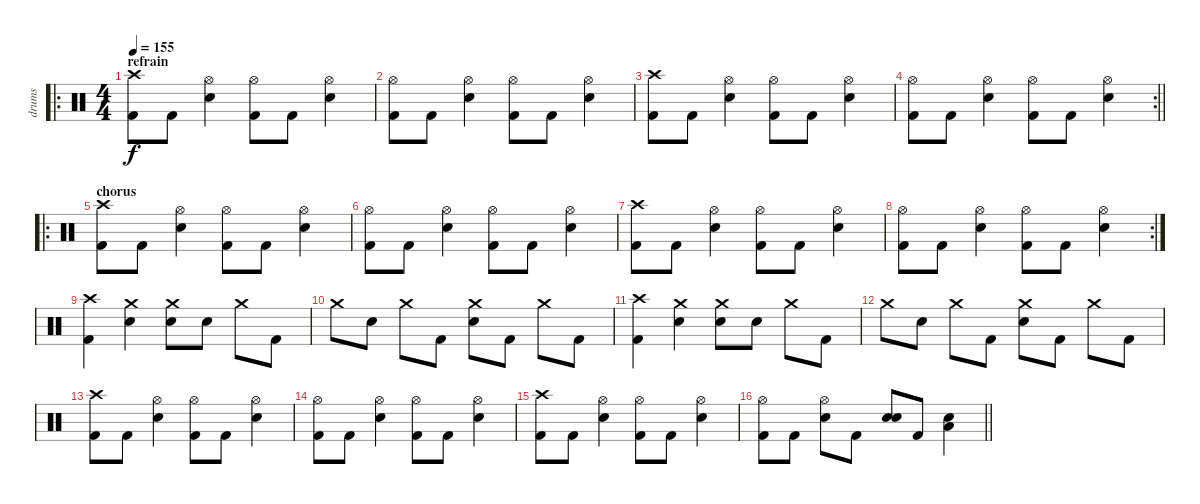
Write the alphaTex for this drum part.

\track ("drums" "drums") {instrument percussion}
\staff
\articulation defaults
\ro
\ts (4 4)
\section ("" "refrain")
\tempo 155
\clef neutral
\ks c
("Crash high (hit)" "Kick (hit) 2").8{dy f} "Kick (hit) 2".8 ("Hi-Hat (open)" "Electric Snare (hit)").4 ("Hi-Hat (open)" "Kick (hit) 2").8 "Kick (hit) 2".8 ("Hi-Hat (open)" "Electric Snare (hit)").4 |
("Hi-Hat (open)" "Kick (hit) 2").8 "Kick (hit) 2".8 ("Hi-Hat (open)" "Electric Snare (hit)").4 ("Hi-Hat (open)" "Kick (hit) 2").8 "Kick (hit) 2".8 ("Hi-Hat (open)" "Electric Snare (hit)").4 |
("Crash high (hit)" "Kick (hit) 2").8 "Kick (hit) 2".8 ("Hi-Hat (open)" "Electric Snare (hit)").4 ("Hi-Hat (open)" "Kick (hit) 2").8 "Kick (hit) 2".8 ("Hi-Hat (open)" "Electric Snare (hit)").4 |
\rc 2
\barLineRight lightlight
("Hi-Hat (open)" "Kick (hit) 2").8 "Kick (hit) 2".8 ("Hi-Hat (open)" "Electric Snare (hit)").4 ("Hi-Hat (open)" "Kick (hit) 2").8 "Kick (hit) 2".8 ("Hi-Hat (open)" "Electric Snare (hit)").4 |
\ro
\section ("" "chorus")
("Crash high (hit)" "Kick (hit) 2").8 "Kick (hit) 2".8 ("Hi-Hat (open)" "Electric Snare (hit)").4 ("Hi-Hat (open)" "Kick (hit) 2").8 "Kick (hit) 2".8 ("Hi-Hat (open)" "Electric Snare (hit)").4 |
("Hi-Hat (open)" "Kick (hit) 2").8 "Kick (hit) 2".8 ("Hi-Hat (open)" "Electric Snare (hit)").4 ("Hi-Hat (open)" "Kick (hit) 2").8 "Kick (hit) 2".8 ("Hi-Hat (open)" "Electric Snare (hit)").4 |
("Crash high (hit)" "Kick (hit) 2").8 "Kick (hit) 2".8 ("Hi-Hat (open)" "Electric Snare (hit)").4 ("Hi-Hat (open)" "Kick (hit) 2").8 "Kick (hit) 2".8 ("Hi-Hat (open)" "Electric Snare (hit)").4 |
\rc 2
("Hi-Hat (open)" "Kick (hit) 2").8 "Kick (hit) 2".8 ("Hi-Hat (open)" "Electric Snare (hit)").4 ("Hi-Hat (open)" "Kick (hit) 2").8 "Kick (hit) 2".8 ("Hi-Hat (open)" "Electric Snare (hit)").4 |
("Crash high (hit)" "Kick (hit) 2").4 ("Crash medium (hit)" "Electric Snare (hit)").4 ("Crash medium (hit)" "Electric Snare (hit)").8 "Electric Snare (hit)".8 "Crash medium (hit)".8 "Kick (hit) 2".8 |
"Crash medium (hit)".8 "Electric Snare (hit)".8 "Crash medium (hit)".8 "Kick (hit) 2".8 ("Crash medium (hit)" "Electric Snare (hit)").8 "Kick (hit) 2".8 "Crash medium (hit)".8 "Kick (hit) 2".8 |
("Crash high (hit)" "Kick (hit) 2").4 ("Crash medium (hit)" "Electric Snare (hit)").4 ("Crash medium (hit)" "Electric Snare (hit)").8 "Electric Snare (hit)".8 "Crash medium (hit)".8 "Kick (hit) 2".8 |
"Crash medium (hit)".8 "Electric Snare (hit)".8 "Crash medium (hit)".8 "Kick (hit) 2".8 ("Crash medium (hit)" "Electric Snare (hit)").8 "Kick (hit) 2".8 "Crash medium (hit)".8 "Kick (hit) 2".8 |
("Crash high (hit)" "Kick (hit) 2").8 "Kick (hit) 2".8 ("Hi-Hat (open)" "Electric Snare (hit)").4 ("Hi-Hat (open)" "Kick (hit) 2").8 "Kick (hit) 2".8 ("Hi-Hat (open)" "Electric Snare (hit)").4 |
("Hi-Hat (open)" "Kick (hit) 2").8 "Kick (hit) 2".8 ("Hi-Hat (open)" "Electric Snare (hit)").4 ("Hi-Hat (open)" "Kick (hit) 2").8 "Kick (hit) 2".8 ("Hi-Hat (open)" "Electric Snare (hit)").4 |
("Crash high (hit)" "Kick (hit) 2").8 "Kick (hit) 2".8 ("Hi-Hat (open)" "Electric Snare (hit)").4 ("Hi-Hat (open)" "Kick (hit) 2").8 "Kick (hit) 2".8 ("Hi-Hat (open)" "Electric Snare (hit)").4 |
\barLineRight lightlight
("Hi-Hat (open)" "Kick (hit) 2").8 "Kick (hit) 2".8 ("Hi-Hat (open)" "Electric Snare (hit)").8 "Kick (hit) 2".8 ("Electric Snare (hit)" "Electric Snare (hit)").8{bd 480} "Kick (hit) 2".8 ("Low Floor Tom (hit)" "Electric Snare (hit)").4
